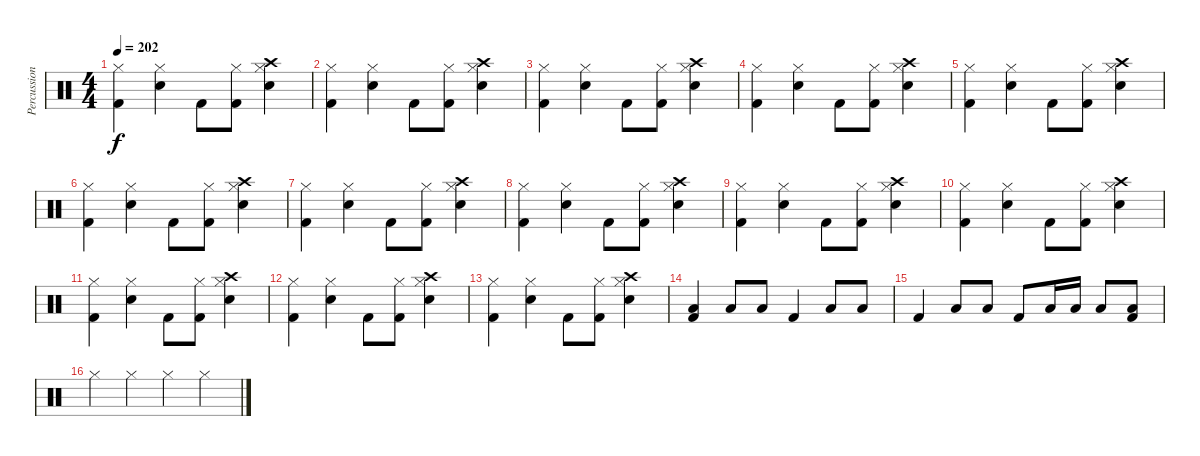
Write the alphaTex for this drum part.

\track ("Percussioni" "Percussion") {instrument percussion}
\staff {score}
\articulation defaults
\ts (4 4)
\tempo 202
\clef neutral
\ks c
("Hi-Hat (closed)" "Kick (hit) 2").4{dy f} ("Hi-Hat (closed)" "Snare (hit) 2").4 "Kick (hit) 2".8 ("Hi-Hat (closed)" "Kick (hit) 2").8 ("Hi-Hat (closed)" "Crash high (hit)" "Snare (hit) 2").4 |
("Hi-Hat (closed)" "Kick (hit) 2").4 ("Hi-Hat (closed)" "Snare (hit) 2").4 "Kick (hit) 2".8 ("Hi-Hat (closed)" "Kick (hit) 2").8 ("Hi-Hat (closed)" "Crash high (hit)" "Snare (hit) 2").4 |
("Hi-Hat (closed)" "Kick (hit) 2").4 ("Hi-Hat (closed)" "Snare (hit) 2").4 "Kick (hit) 2".8 ("Hi-Hat (closed)" "Kick (hit) 2").8 ("Hi-Hat (closed)" "Crash high (hit)" "Snare (hit) 2").4 |
("Hi-Hat (closed)" "Kick (hit) 2").4 ("Hi-Hat (closed)" "Snare (hit) 2").4 "Kick (hit) 2".8 ("Hi-Hat (closed)" "Kick (hit) 2").8 ("Hi-Hat (closed)" "Crash high (hit)" "Snare (hit) 2").4 |
("Hi-Hat (closed)" "Kick (hit) 2").4 ("Hi-Hat (closed)" "Snare (hit) 2").4 "Kick (hit) 2".8 ("Hi-Hat (closed)" "Kick (hit) 2").8 ("Hi-Hat (closed)" "Crash high (hit)" "Snare (hit) 2").4 |
("Hi-Hat (closed)" "Kick (hit) 2").4 ("Hi-Hat (closed)" "Snare (hit) 2").4 "Kick (hit) 2".8 ("Hi-Hat (closed)" "Kick (hit) 2").8 ("Hi-Hat (closed)" "Crash high (hit)" "Snare (hit) 2").4 |
("Hi-Hat (closed)" "Kick (hit) 2").4 ("Hi-Hat (closed)" "Snare (hit) 2").4 "Kick (hit) 2".8 ("Hi-Hat (closed)" "Kick (hit) 2").8 ("Hi-Hat (closed)" "Crash high (hit)" "Snare (hit) 2").4 |
("Hi-Hat (closed)" "Kick (hit) 2").4 ("Hi-Hat (closed)" "Snare (hit) 2").4 "Kick (hit) 2".8 ("Hi-Hat (closed)" "Kick (hit) 2").8 ("Hi-Hat (closed)" "Crash high (hit)" "Snare (hit) 2").4 |
("Hi-Hat (closed)" "Kick (hit) 2").4 ("Hi-Hat (closed)" "Snare (hit) 2").4 "Kick (hit) 2".8 ("Hi-Hat (closed)" "Kick (hit) 2").8 ("Hi-Hat (closed)" "Crash high (hit)" "Snare (hit) 2").4 |
("Hi-Hat (closed)" "Kick (hit) 2").4 ("Hi-Hat (closed)" "Snare (hit) 2").4 "Kick (hit) 2".8 ("Hi-Hat (closed)" "Kick (hit) 2").8 ("Hi-Hat (closed)" "Crash high (hit)" "Snare (hit) 2").4 |
("Hi-Hat (closed)" "Kick (hit) 2").4 ("Hi-Hat (closed)" "Snare (hit) 2").4 "Kick (hit) 2".8 ("Hi-Hat (closed)" "Kick (hit) 2").8 ("Hi-Hat (closed)" "Crash high (hit)" "Snare (hit) 2").4 |
("Hi-Hat (closed)" "Kick (hit) 2").4 ("Hi-Hat (closed)" "Snare (hit) 2").4 "Kick (hit) 2".8 ("Hi-Hat (closed)" "Kick (hit) 2").8 ("Hi-Hat (closed)" "Crash high (hit)" "Snare (hit) 2").4 |
("Hi-Hat (closed)" "Kick (hit) 2").4 ("Hi-Hat (closed)" "Snare (hit) 2").4 "Kick (hit) 2".8 ("Hi-Hat (closed)" "Kick (hit) 2").8 ("Hi-Hat (closed)" "Crash high (hit)" "Snare (hit) 2").4 |
("Low Tom (hit)" "Kick (hit) 2").4 "Low Tom (hit)".8 "Low Tom (hit)".8 "Kick (hit) 2".4 "Low Tom (hit)".8 "Low Tom (hit)".8 |
"Kick (hit) 2".4 "Low Tom (hit)".8 "Low Tom (hit)".8 "Kick (hit) 2".8 "Low Tom (hit)".16 "Low Tom (hit)".16 "Low Tom (hit)".8 ("Low Tom (hit)" "Kick (hit) 2").8 |
"Hi-Hat (closed)".4 "Hi-Hat (closed)".4 "Hi-Hat (closed)".4 "Hi-Hat (closed)".4
